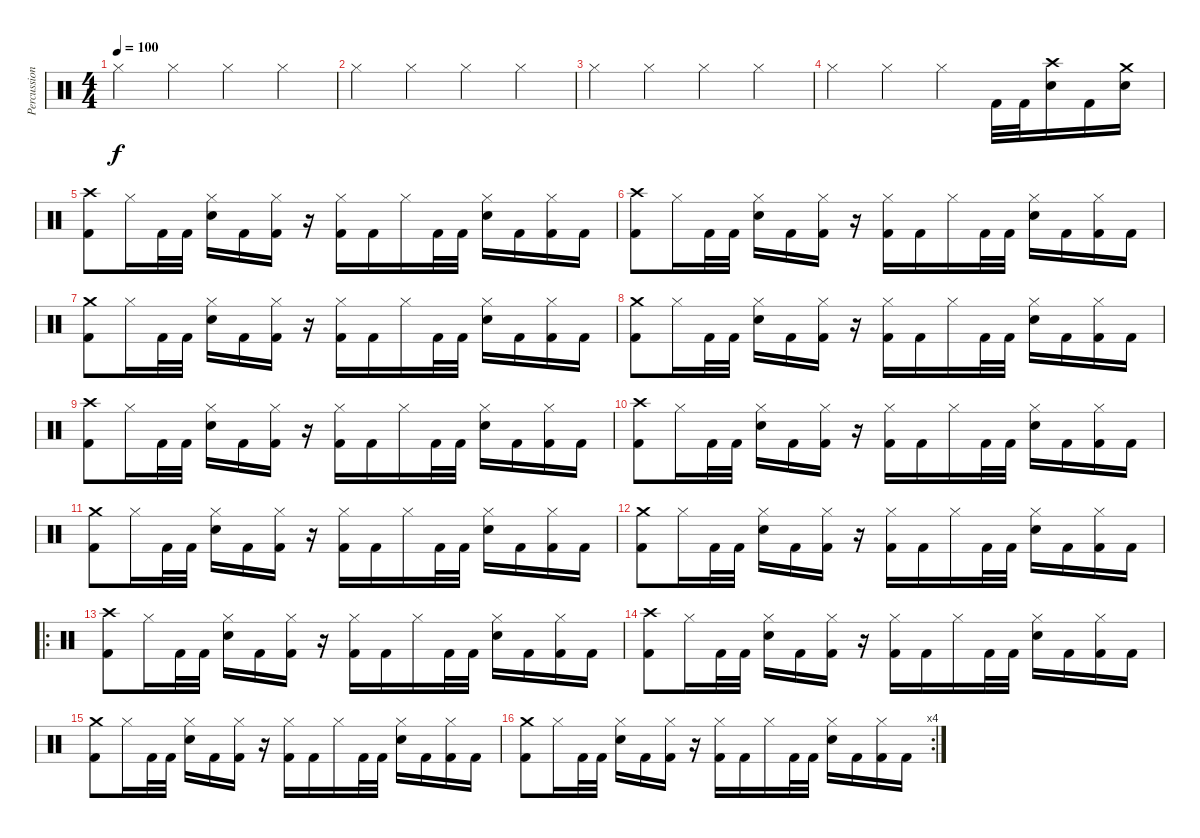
\track ("Percussion" "Percussion") {instrument percussion}
\staff {score}
\articulation defaults
\ts (4 4)
\tempo 100
\clef neutral
\ks c "Hi-Hat (closed)".4{dy f} "Hi-Hat (closed)".4 "Hi-Hat (closed)".4 "Hi-Hat (closed)".4
|
"Hi-Hat (closed)".4 "Hi-Hat (closed)".4 "Hi-Hat (closed)".4 "Hi-Hat (closed)".4 |
"Hi-Hat (closed)".4 "Hi-Hat (closed)".4 "Hi-Hat (closed)".4 "Hi-Hat (closed)".4 |
"Hi-Hat (closed)".4 "Hi-Hat (closed)".4 "Hi-Hat (closed)".4 "Kick (hit) 2".32 "Kick (hit) 2".32 ("Crash high (hit)" "Electric Snare (hit)").16 "Kick (hit) 2".16 ("Crash medium (hit)" "Electric Snare (hit)").16 |
("Crash high (hit)" "Kick (hit) 2").8 "Hi-Hat (closed)".16 "Kick (hit) 2".32 "Kick (hit) 2".32 ("Hi-Hat (closed)" "Electric Snare (hit)").16 "Kick (hit) 2".16 ("Hi-Hat (closed)" "Kick (hit) 2").16 r.16 ("Hi-Hat (closed)" "Kick (hit) 2").16 "Kick (hit) 2".16 "Hi-Hat (closed)".16 "Kick (hit) 2".32 "Kick (hit) 2".32 ("Hi-Hat (closed)" "Electric Snare (hit)").16 "Kick (hit) 2".16 ("Hi-Hat (closed)" "Kick (hit) 2").16 "Kick (hit) 2".16 |
("Crash high (hit)" "Kick (hit) 2").8 "Hi-Hat (closed)".16 "Kick (hit) 2".32 "Kick (hit) 2".32 ("Hi-Hat (closed)" "Electric Snare (hit)").16 "Kick (hit) 2".16 ("Hi-Hat (closed)" "Kick (hit) 2").16 r.16 ("Hi-Hat (closed)" "Kick (hit) 2").16 "Kick (hit) 2".16 "Hi-Hat (closed)".16 "Kick (hit) 2".32 "Kick (hit) 2".32 ("Hi-Hat (closed)" "Electric Snare (hit)").16 "Kick (hit) 2".16 ("Hi-Hat (closed)" "Kick (hit) 2").16 "Kick (hit) 2".16 |
("Crash medium (hit)" "Kick (hit) 2").8 "Hi-Hat (closed)".16 "Kick (hit) 2".32 "Kick (hit) 2".32 ("Hi-Hat (closed)" "Electric Snare (hit)").16 "Kick (hit) 2".16 ("Hi-Hat (closed)" "Kick (hit) 2").16 r.16 ("Hi-Hat (closed)" "Kick (hit) 2").16 "Kick (hit) 2".16 "Hi-Hat (closed)".16 "Kick (hit) 2".32 "Kick (hit) 2".32 ("Hi-Hat (closed)" "Electric Snare (hit)").16 "Kick (hit) 2".16 ("Hi-Hat (closed)" "Kick (hit) 2").16 "Kick (hit) 2".16 |
("Crash medium (hit)" "Kick (hit) 2").8 "Hi-Hat (closed)".16 "Kick (hit) 2".32 "Kick (hit) 2".32 ("Hi-Hat (closed)" "Electric Snare (hit)").16 "Kick (hit) 2".16 ("Hi-Hat (closed)" "Kick (hit) 2").16 r.16 ("Hi-Hat (closed)" "Kick (hit) 2").16 "Kick (hit) 2".16 "Hi-Hat (closed)".16 "Kick (hit) 2".32 "Kick (hit) 2".32 ("Hi-Hat (closed)" "Electric Snare (hit)").16 "Kick (hit) 2".16 ("Hi-Hat (closed)" "Kick (hit) 2").16 "Kick (hit) 2".16 |
("Crash high (hit)" "Kick (hit) 2").8 "Hi-Hat (closed)".16 "Kick (hit) 2".32 "Kick (hit) 2".32 ("Hi-Hat (closed)" "Electric Snare (hit)").16 "Kick (hit) 2".16 ("Hi-Hat (closed)" "Kick (hit) 2").16 r.16 ("Hi-Hat (closed)" "Kick (hit) 2").16 "Kick (hit) 2".16 "Hi-Hat (closed)".16 "Kick (hit) 2".32 "Kick (hit) 2".32 ("Hi-Hat (closed)" "Electric Snare (hit)").16 "Kick (hit) 2".16 ("Hi-Hat (closed)" "Kick (hit) 2").16 "Kick (hit) 2".16 |
("Crash high (hit)" "Kick (hit) 2").8 "Hi-Hat (closed)".16 "Kick (hit) 2".32 "Kick (hit) 2".32 ("Hi-Hat (closed)" "Electric Snare (hit)").16 "Kick (hit) 2".16 ("Hi-Hat (closed)" "Kick (hit) 2").16 r.16 ("Hi-Hat (closed)" "Kick (hit) 2").16 "Kick (hit) 2".16 "Hi-Hat (closed)".16 "Kick (hit) 2".32 "Kick (hit) 2".32 ("Hi-Hat (closed)" "Electric Snare (hit)").16 "Kick (hit) 2".16 ("Hi-Hat (closed)" "Kick (hit) 2").16 "Kick (hit) 2".16 |
("Crash medium (hit)" "Kick (hit) 2").8 "Hi-Hat (closed)".16 "Kick (hit) 2".32 "Kick (hit) 2".32 ("Hi-Hat (closed)" "Electric Snare (hit)").16 "Kick (hit) 2".16 ("Hi-Hat (closed)" "Kick (hit) 2").16 r.16 ("Hi-Hat (closed)" "Kick (hit) 2").16 "Kick (hit) 2".16 "Hi-Hat (closed)".16 "Kick (hit) 2".32 "Kick (hit) 2".32 ("Hi-Hat (closed)" "Electric Snare (hit)").16 "Kick (hit) 2".16 ("Hi-Hat (closed)" "Kick (hit) 2").16 "Kick (hit) 2".16 |
("Crash medium (hit)" "Kick (hit) 2").8 "Hi-Hat (closed)".16 "Kick (hit) 2".32 "Kick (hit) 2".32 ("Hi-Hat (closed)" "Electric Snare (hit)").16 "Kick (hit) 2".16 ("Hi-Hat (closed)" "Kick (hit) 2").16 r.16 ("Hi-Hat (closed)" "Kick (hit) 2").16 "Kick (hit) 2".16 "Hi-Hat (closed)".16 "Kick (hit) 2".32 "Kick (hit) 2".32 ("Hi-Hat (closed)" "Electric Snare (hit)").16 "Kick (hit) 2".16 ("Hi-Hat (closed)" "Kick (hit) 2").16 "Kick (hit) 2".16 |
\ro
("Crash high (hit)" "Kick (hit) 2").8 "Hi-Hat (closed)".16 "Kick (hit) 2".32 "Kick (hit) 2".32 ("Hi-Hat (closed)" "Electric Snare (hit)").16 "Kick (hit) 2".16 ("Hi-Hat (closed)" "Kick (hit) 2").16 r.16 ("Hi-Hat (closed)" "Kick (hit) 2").16 "Kick (hit) 2".16 "Hi-Hat (closed)".16 "Kick (hit) 2".32 "Kick (hit) 2".32 ("Hi-Hat (closed)" "Electric Snare (hit)").16 "Kick (hit) 2".16 ("Hi-Hat (closed)" "Kick (hit) 2").16 "Kick (hit) 2".16 |
("Crash high (hit)" "Kick (hit) 2").8 "Hi-Hat (closed)".16 "Kick (hit) 2".32 "Kick (hit) 2".32 ("Hi-Hat (closed)" "Electric Snare (hit)").16 "Kick (hit) 2".16 ("Hi-Hat (closed)" "Kick (hit) 2").16 r.16 ("Hi-Hat (closed)" "Kick (hit) 2").16 "Kick (hit) 2".16 "Hi-Hat (closed)".16 "Kick (hit) 2".32 "Kick (hit) 2".32 ("Hi-Hat (closed)" "Electric Snare (hit)").16 "Kick (hit) 2".16 ("Hi-Hat (closed)" "Kick (hit) 2").16 "Kick (hit) 2".16 |
("Crash medium (hit)" "Kick (hit) 2").8 "Hi-Hat (closed)".16 "Kick (hit) 2".32 "Kick (hit) 2".32 ("Hi-Hat (closed)" "Electric Snare (hit)").16 "Kick (hit) 2".16 ("Hi-Hat (closed)" "Kick (hit) 2").16 r.16 ("Hi-Hat (closed)" "Kick (hit) 2").16 "Kick (hit) 2".16 "Hi-Hat (closed)".16 "Kick (hit) 2".32 "Kick (hit) 2".32 ("Hi-Hat (closed)" "Electric Snare (hit)").16 "Kick (hit) 2".16 ("Hi-Hat (closed)" "Kick (hit) 2").16 "Kick (hit) 2".16 |
\rc 4
("Crash medium (hit)" "Kick (hit) 2").8 "Hi-Hat (closed)".16 "Kick (hit) 2".32 "Kick (hit) 2".32 ("Hi-Hat (closed)" "Electric Snare (hit)").16 "Kick (hit) 2".16 ("Hi-Hat (closed)" "Kick (hit) 2").16 r.16 ("Hi-Hat (closed)" "Kick (hit) 2").16 "Kick (hit) 2".16 "Hi-Hat (closed)".16 "Kick (hit) 2".32 "Kick (hit) 2".32 ("Hi-Hat (closed)" "Electric Snare (hit)").16 "Kick (hit) 2".16 ("Hi-Hat (closed)" "Kick (hit) 2").16 "Kick (hit) 2".16
